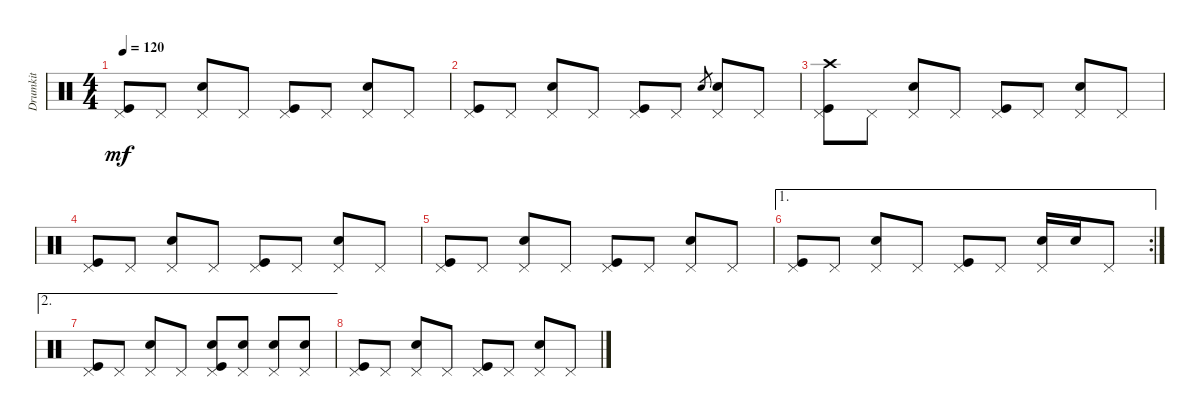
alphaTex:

\track ("Drumkit" "Drumkit") {instrument percussion}
\staff {score}
\articulation defaults
\ts (4 4)
\tempo 120
\clef neutral
\ks c
("Kick (hit)" "Pedal Hi-Hat (hit)").8{dy mf} "Pedal Hi-Hat (hit)".8 ("Pedal Hi-Hat (hit)" "Snare (hit) 2").8 "Pedal Hi-Hat (hit)".8 ("Kick (hit)" "Pedal Hi-Hat (hit)").8 "Pedal Hi-Hat (hit)".8 ("Pedal Hi-Hat (hit)" "Snare (hit) 2").8 "Pedal Hi-Hat (hit)".8 |
("Kick (hit)" "Pedal Hi-Hat (hit)").8 "Pedal Hi-Hat (hit)".8 ("Pedal Hi-Hat (hit)" "Snare (hit) 2").8 "Pedal Hi-Hat (hit)".8 ("Kick (hit)" "Pedal Hi-Hat (hit)").8 "Pedal Hi-Hat (hit)".8 "Snare (hit)".8{gr} ("Pedal Hi-Hat (hit)" "Snare (hit) 2").8 "Pedal Hi-Hat (hit)".8 |
("Kick (hit)" "Crash high (hit)" "Pedal Hi-Hat (hit)").8 "Pedal Hi-Hat (hit)".8 ("Pedal Hi-Hat (hit)" "Snare (hit) 2").8 "Pedal Hi-Hat (hit)".8 ("Kick (hit)" "Pedal Hi-Hat (hit)").8 "Pedal Hi-Hat (hit)".8 ("Pedal Hi-Hat (hit)" "Snare (hit) 2").8 "Pedal Hi-Hat (hit)".8 |
("Kick (hit)" "Pedal Hi-Hat (hit)").8 "Pedal Hi-Hat (hit)".8 ("Pedal Hi-Hat (hit)" "Snare (hit) 2").8 "Pedal Hi-Hat (hit)".8 ("Kick (hit)" "Pedal Hi-Hat (hit)").8 "Pedal Hi-Hat (hit)".8 ("Pedal Hi-Hat (hit)" "Snare (hit) 2").8 "Pedal Hi-Hat (hit)".8 |
("Kick (hit)" "Pedal Hi-Hat (hit)").8 "Pedal Hi-Hat (hit)".8 ("Pedal Hi-Hat (hit)" "Snare (hit) 2").8 "Pedal Hi-Hat (hit)".8 ("Kick (hit)" "Pedal Hi-Hat (hit)").8 "Pedal Hi-Hat (hit)".8 ("Pedal Hi-Hat (hit)" "Snare (hit) 2").8 "Pedal Hi-Hat (hit)".8 |
\ae 1
\rc 2
("Kick (hit)" "Pedal Hi-Hat (hit)").8 "Pedal Hi-Hat (hit)".8 ("Pedal Hi-Hat (hit)" "Snare (hit) 2").8 "Pedal Hi-Hat (hit)".8 ("Kick (hit)" "Pedal Hi-Hat (hit)").8 "Pedal Hi-Hat (hit)".8 ("Pedal Hi-Hat (hit)" "Snare (hit) 2").16 "Snare (hit) 2".16 "Pedal Hi-Hat (hit)".8 |
\ae 2
("Kick (hit)" "Pedal Hi-Hat (hit)").8 "Pedal Hi-Hat (hit)".8 ("Pedal Hi-Hat (hit)" "Snare (hit) 2").8 "Pedal Hi-Hat (hit)".8 ("Kick (hit)" "Pedal Hi-Hat (hit)" "Snare (hit) 2").8 ("Pedal Hi-Hat (hit)" "Snare (hit) 2").8 ("Pedal Hi-Hat (hit)" "Snare (hit) 2").8 ("Pedal Hi-Hat (hit)" "Snare (hit) 2").8 |
("Kick (hit)" "Pedal Hi-Hat (hit)").8 "Pedal Hi-Hat (hit)".8 ("Pedal Hi-Hat (hit)" "Snare (hit) 2").8 "Pedal Hi-Hat (hit)".8 ("Kick (hit)" "Pedal Hi-Hat (hit)").8 "Pedal Hi-Hat (hit)".8 ("Pedal Hi-Hat (hit)" "Snare (hit) 2").8 "Pedal Hi-Hat (hit)".8
